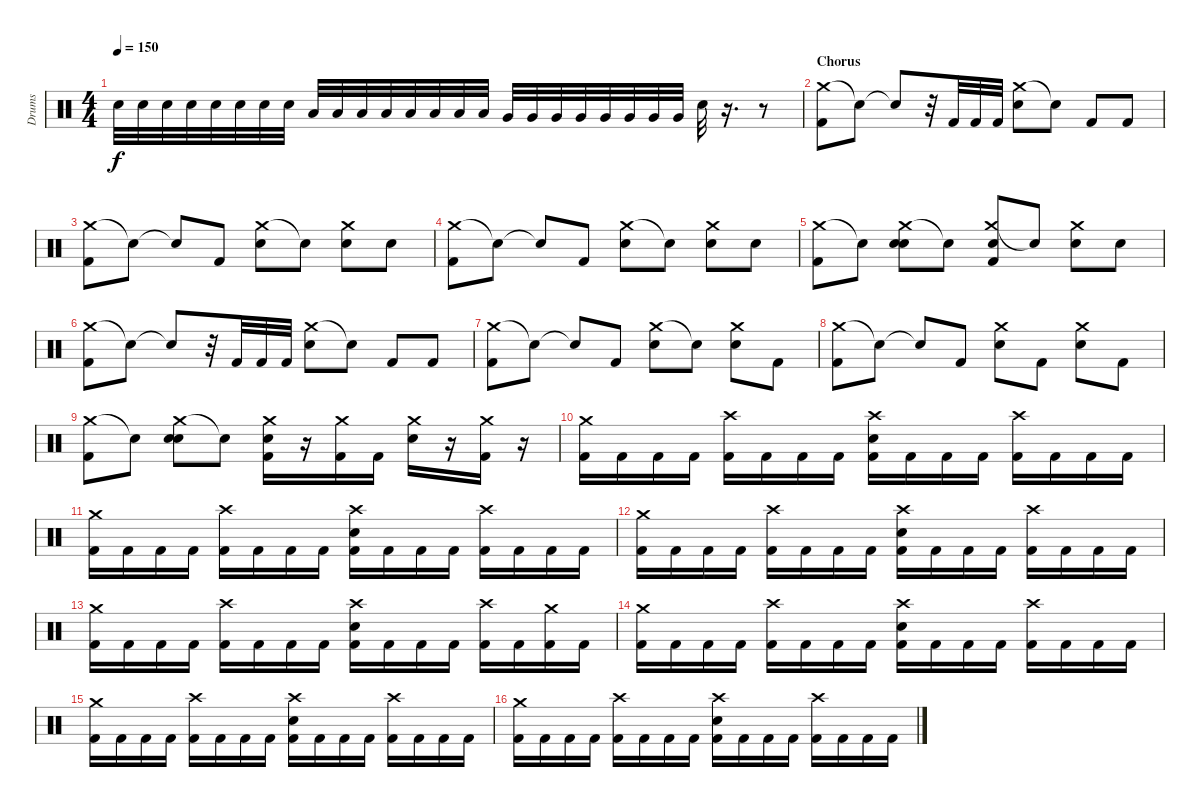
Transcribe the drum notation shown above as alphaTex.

\track ("Drums" "Drums") {instrument percussion}
\staff {score}
\articulation defaults
\ts (4 4)
\tempo 150
\clef neutral
\ks c "Electric Snare (hit)".32{dy f} "Electric Snare (hit)".32 "Electric Snare (hit)".32 "Electric Snare (hit)".32 "Electric Snare (hit)".32 "Electric Snare (hit)".32 "Electric Snare (hit)".32 "Electric Snare (hit)".32 "Low Tom (hit)".32 "Low Tom (hit)".32 "Low Tom (hit)".32 "Low Tom (hit)".32 "Low Tom (hit)".32 "Low Tom (hit)".32 "Low Tom (hit)".32 "Low Tom (hit)".32 "Very Low Tom (hit)".32 "Very Low Tom (hit)".32 "Very Low Tom (hit)".32 "Very Low Tom (hit)".32 "Very Low Tom (hit)".32 "Very Low Tom (hit)".32 "Very Low Tom (hit)".32 "Very Low Tom (hit)".32 "Electric Snare (hit)".32
r.16{d} r.8 |
\section ("" "Chorus")
("Crash medium (hit)" "Kick (hit) 2").8 "Snare (hit)"{t}.8 "Snare (hit)"{t}.8 r.32 "Kick (hit) 2".32 "Kick (hit) 2".32 "Kick (hit) 2".32 ("Crash medium (hit)" "Electric Snare (hit)").8 "Snare (hit)"{t}.8 "Kick (hit) 2".8 "Kick (hit) 2".8 |
("Crash medium (hit)" "Kick (hit) 2").8 "Snare (hit)"{t}.8 "Snare (hit)"{t}.8 "Kick (hit) 2".8 ("Crash medium (hit)" "Electric Snare (hit)").8 "Snare (hit)"{t}.8 ("Crash medium (hit)" "Electric Snare (hit)").8 "Electric Snare (hit)".8 |
("Crash medium (hit)" "Kick (hit) 2").8 "Snare (hit)"{t}.8 "Snare (hit)"{t}.8 "Kick (hit) 2".8 ("Crash medium (hit)" "Electric Snare (hit)").8 "Snare (hit)"{t}.8 ("Crash medium (hit)" "Electric Snare (hit)").8 "Electric Snare (hit)".8 |
("Crash medium (hit)" "Kick (hit) 2").8 "Snare (hit)"{t}.8 ("Crash medium (hit)" "Electric Snare (hit)" "Snare (hit)").8 "Snare (hit)"{t}.8 ("Crash medium (hit)" "Electric Snare (hit)" "Kick (hit) 2").8 "Snare (hit)"{t}.8 ("Crash medium (hit)" "Electric Snare (hit)").8 "Electric Snare (hit)".8 |
("Crash medium (hit)" "Kick (hit) 2").8 "Snare (hit)"{t}.8 "Snare (hit)"{t}.8 r.32 "Kick (hit) 2".32 "Kick (hit) 2".32 "Kick (hit) 2".32 ("Crash medium (hit)" "Electric Snare (hit)").8 "Snare (hit)"{t}.8 "Kick (hit) 2".8 "Kick (hit) 2".8 |
("Crash medium (hit)" "Kick (hit) 2").8 "Snare (hit)"{t}.8 "Snare (hit)"{t}.8 "Kick (hit) 2".8 ("Crash medium (hit)" "Electric Snare (hit)").8 "Snare (hit)"{t}.8 ("Crash medium (hit)" "Electric Snare (hit)").8 "Kick (hit) 2".8 |
("Crash medium (hit)" "Kick (hit) 2").8 "Snare (hit)"{t}.8 "Snare (hit)"{t}.8 "Kick (hit) 2".8 ("Crash medium (hit)" "Electric Snare (hit)").8 "Kick (hit) 2".8 ("Crash medium (hit)" "Electric Snare (hit)").8 "Kick (hit) 2".8 |
("Crash medium (hit)" "Kick (hit) 2").8 "Snare (hit)"{t}.8 ("Crash medium (hit)" "Electric Snare (hit)" "Snare (hit)").8 "Snare (hit)"{t}.8 ("Crash medium (hit)" "Electric Snare (hit)" "Kick (hit) 2").16 r.16 ("Crash medium (hit)" "Kick (hit) 2").16 "Kick (hit) 2".16 ("Crash medium (hit)" "Electric Snare (hit)").16 r.16 ("Crash medium (hit)" "Kick (hit) 2").16 r.16 |
("Crash medium (hit)" "Kick (hit) 2").16 "Kick (hit) 2".16 "Kick (hit) 2".16 "Kick (hit) 2".16 ("Crash high (hit)" "Kick (hit) 2").16 "Kick (hit) 2".16 "Kick (hit) 2".16 "Kick (hit) 2".16 ("Crash high (hit)" "Electric Snare (hit)" "Kick (hit) 2").16 "Kick (hit) 2".16 "Kick (hit) 2".16 "Kick (hit) 2".16 ("Crash high (hit)" "Kick (hit) 2").16 "Kick (hit) 2".16 "Kick (hit) 2".16 "Kick (hit) 2".16 |
("Crash medium (hit)" "Kick (hit) 2").16 "Kick (hit) 2".16 "Kick (hit) 2".16 "Kick (hit) 2".16 ("Crash high (hit)" "Kick (hit) 2").16 "Kick (hit) 2".16 "Kick (hit) 2".16 "Kick (hit) 2".16 ("Crash high (hit)" "Electric Snare (hit)" "Kick (hit) 2").16 "Kick (hit) 2".16 "Kick (hit) 2".16 "Kick (hit) 2".16 ("Crash high (hit)" "Kick (hit) 2").16 "Kick (hit) 2".16 "Kick (hit) 2".16 "Kick (hit) 2".16 |
("Crash medium (hit)" "Kick (hit) 2").16 "Kick (hit) 2".16 "Kick (hit) 2".16 "Kick (hit) 2".16 ("Crash high (hit)" "Kick (hit) 2").16 "Kick (hit) 2".16 "Kick (hit) 2".16 "Kick (hit) 2".16 ("Crash high (hit)" "Electric Snare (hit)" "Kick (hit) 2").16 "Kick (hit) 2".16 "Kick (hit) 2".16 "Kick (hit) 2".16 ("Crash high (hit)" "Kick (hit) 2").16 "Kick (hit) 2".16 "Kick (hit) 2".16 "Kick (hit) 2".16 |
("Crash medium (hit)" "Kick (hit) 2").16 "Kick (hit) 2".16 "Kick (hit) 2".16 "Kick (hit) 2".16 ("Crash high (hit)" "Kick (hit) 2").16 "Kick (hit) 2".16 "Kick (hit) 2".16 "Kick (hit) 2".16 ("Crash high (hit)" "Electric Snare (hit)" "Kick (hit) 2").16 "Kick (hit) 2".16 "Kick (hit) 2".16 "Kick (hit) 2".16 ("Crash high (hit)" "Kick (hit) 2").16 "Kick (hit) 2".16 ("Crash medium (hit)" "Kick (hit) 2").16 "Kick (hit) 2".16 |
("Crash medium (hit)" "Kick (hit) 2").16 "Kick (hit) 2".16 "Kick (hit) 2".16 "Kick (hit) 2".16 ("Crash high (hit)" "Kick (hit) 2").16 "Kick (hit) 2".16 "Kick (hit) 2".16 "Kick (hit) 2".16 ("Crash high (hit)" "Electric Snare (hit)" "Kick (hit) 2").16 "Kick (hit) 2".16 "Kick (hit) 2".16 "Kick (hit) 2".16 ("Crash high (hit)" "Kick (hit) 2").16 "Kick (hit) 2".16 "Kick (hit) 2".16 "Kick (hit) 2".16 |
("Crash medium (hit)" "Kick (hit) 2").16 "Kick (hit) 2".16 "Kick (hit) 2".16 "Kick (hit) 2".16 ("Crash high (hit)" "Kick (hit) 2").16 "Kick (hit) 2".16 "Kick (hit) 2".16 "Kick (hit) 2".16 ("Crash high (hit)" "Electric Snare (hit)" "Kick (hit) 2").16 "Kick (hit) 2".16 "Kick (hit) 2".16 "Kick (hit) 2".16 ("Crash high (hit)" "Kick (hit) 2").16 "Kick (hit) 2".16 "Kick (hit) 2".16 "Kick (hit) 2".16 |
("Crash medium (hit)" "Kick (hit) 2").16 "Kick (hit) 2".16 "Kick (hit) 2".16 "Kick (hit) 2".16 ("Crash high (hit)" "Kick (hit) 2").16 "Kick (hit) 2".16 "Kick (hit) 2".16 "Kick (hit) 2".16 ("Crash high (hit)" "Electric Snare (hit)" "Kick (hit) 2").16 "Kick (hit) 2".16 "Kick (hit) 2".16 "Kick (hit) 2".16 ("Crash high (hit)" "Kick (hit) 2").16 "Kick (hit) 2".16 "Kick (hit) 2".16 "Kick (hit) 2".16
